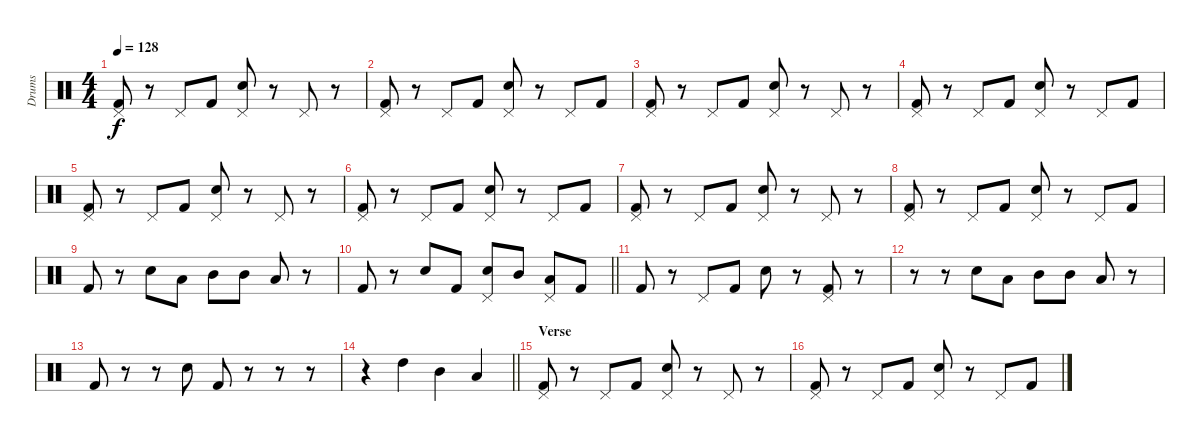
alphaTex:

\track ("Drums" "Drums") {instrument percussion}
\staff {score}
\articulation defaults
\ts (4 4)
\tempo 128
\clef neutral
\ks c
("Pedal Hi-Hat (hit)" "Kick (hit) 2").8{dy f} r.8 "Pedal Hi-Hat (hit)".8 "Kick (hit) 2".8 ("Pedal Hi-Hat (hit)" "Electric Snare (hit)").8 r.8 "Pedal Hi-Hat (hit)".8 r.8 |
("Pedal Hi-Hat (hit)" "Kick (hit) 2").8 r.8 "Pedal Hi-Hat (hit)".8 "Kick (hit) 2".8 ("Pedal Hi-Hat (hit)" "Electric Snare (hit)").8 r.8 "Pedal Hi-Hat (hit)".8 "Kick (hit) 2".8 |
("Pedal Hi-Hat (hit)" "Kick (hit) 2").8 r.8 "Pedal Hi-Hat (hit)".8 "Kick (hit) 2".8 ("Pedal Hi-Hat (hit)" "Electric Snare (hit)").8 r.8 "Pedal Hi-Hat (hit)".8 r.8 |
("Pedal Hi-Hat (hit)" "Kick (hit) 2").8 r.8 "Pedal Hi-Hat (hit)".8 "Kick (hit) 2".8 ("Pedal Hi-Hat (hit)" "Electric Snare (hit)").8 r.8 "Pedal Hi-Hat (hit)".8 "Kick (hit) 2".8 |
("Pedal Hi-Hat (hit)" "Kick (hit) 2").8 r.8 "Pedal Hi-Hat (hit)".8 "Kick (hit) 2".8 ("Pedal Hi-Hat (hit)" "Electric Snare (hit)").8 r.8 "Pedal Hi-Hat (hit)".8 r.8 |
("Pedal Hi-Hat (hit)" "Kick (hit) 2").8 r.8 "Pedal Hi-Hat (hit)".8 "Kick (hit) 2".8 ("Pedal Hi-Hat (hit)" "Electric Snare (hit)").8 r.8 "Pedal Hi-Hat (hit)".8 "Kick (hit) 2".8 |
("Pedal Hi-Hat (hit)" "Kick (hit) 2").8 r.8 "Pedal Hi-Hat (hit)".8 "Kick (hit) 2".8 ("Pedal Hi-Hat (hit)" "Electric Snare (hit)").8 r.8 "Pedal Hi-Hat (hit)".8 r.8 |
("Pedal Hi-Hat (hit)" "Kick (hit) 2").8 r.8 "Pedal Hi-Hat (hit)".8 "Kick (hit) 2".8 ("Pedal Hi-Hat (hit)" "Electric Snare (hit)").8 r.8 "Pedal Hi-Hat (hit)".8 "Kick (hit) 2".8 |
"Kick (hit) 2".8 r.8 "Electric Snare (hit)".8 "Low Tom (hit)".8 "Mid Tom (hit)".8 "Mid Tom (hit)".8 "Low Tom (hit)".8 r.8 |
\barLineRight lightlight "Kick (hit) 2".8
r.8 "Electric Snare (hit)".8 "Kick (hit) 2".8 ("Pedal Hi-Hat (hit)" "Electric Snare (hit)").8 "Mid Tom (hit)".8 ("Pedal Hi-Hat (hit)" "Low Tom (hit)").8 "Kick (hit) 2".8 |
"Kick (hit) 2".8 r.8 "Pedal Hi-Hat (hit)".8 "Kick (hit) 2".8 "Electric Snare (hit)".8 r.8 ("Pedal Hi-Hat (hit)" "Kick (hit) 2").8 r.8 |
r.8 r.8 "Electric Snare (hit)".8 "Low Tom (hit)".8 "Mid Tom (hit)".8 "Mid Tom (hit)".8 "Low Tom (hit)".8 r.8 |
"Kick (hit) 2".8 r.8 r.8 "Electric Snare (hit)".8 "Kick (hit) 2".8 r.8 r.8 r.8 |
\barLineRight lightlight
r.4 "High Tom (hit)".4 "Mid Tom (hit)".4 "Low Tom (hit)".4 |
\section ("" "Verse")
("Pedal Hi-Hat (hit)" "Kick (hit) 2").8 r.8 "Pedal Hi-Hat (hit)".8 "Kick (hit) 2".8 ("Pedal Hi-Hat (hit)" "Electric Snare (hit)").8 r.8 "Pedal Hi-Hat (hit)".8 r.8 |
("Pedal Hi-Hat (hit)" "Kick (hit) 2").8 r.8 "Pedal Hi-Hat (hit)".8 "Kick (hit) 2".8 ("Pedal Hi-Hat (hit)" "Electric Snare (hit)").8 r.8 "Pedal Hi-Hat (hit)".8 "Kick (hit) 2".8
